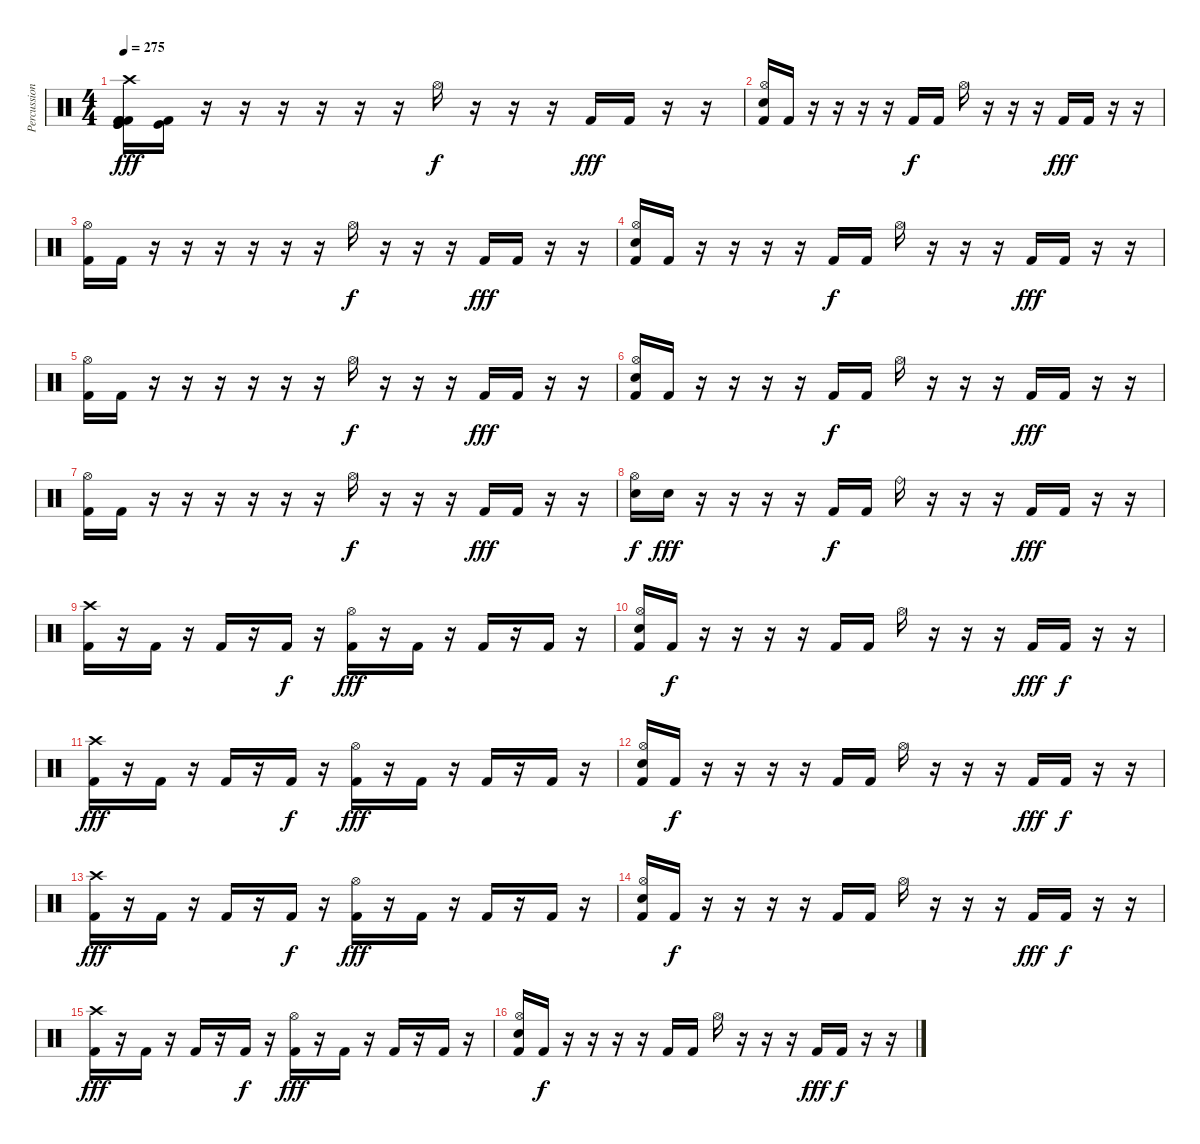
\track ("Percussion" "Percussion") {instrument percussion}
\staff {score}
\articulation defaults
\ts (4 4)
\tempo 275
\clef neutral
\ks c
("Crash high (hit)" "Kick (hit)" "Kick (hit)" "Kick (hit) 2" "Kick (hit) 2" "Kick (hit) 2").16{dy fff} ("Kick (hit)" "Kick (hit) 2").16 r.16 r.16 r.16 r.16 r.16 r.16 "Hi-Hat (open)".16{dy f} r.16 r.16 r.16 "Kick (hit) 2".16{dy fff} "Kick (hit) 2".16 r.16 r.16 |
("Hi-Hat (open)" "Electric Snare (hit)" "Kick (hit) 2").16 "Kick (hit) 2".16 r.16 r.16 r.16 r.16 "Kick (hit) 2".16{dy f} "Kick (hit) 2".16 "Hi-Hat (open)".16 r.16 r.16 r.16 "Kick (hit) 2".16{dy fff} "Kick (hit) 2".16 r.16 r.16 |
("Hi-Hat (open)" "Kick (hit) 2").16 "Kick (hit) 2".16 r.16 r.16 r.16 r.16 r.16 r.16 "Hi-Hat (open)".16{dy f} r.16 r.16 r.16 "Kick (hit) 2".16{dy fff} "Kick (hit) 2".16 r.16 r.16 |
("Hi-Hat (open)" "Electric Snare (hit)" "Kick (hit) 2").16 "Kick (hit) 2".16 r.16 r.16 r.16 r.16 "Kick (hit) 2".16{dy f} "Kick (hit) 2".16 "Hi-Hat (open)".16 r.16 r.16 r.16 "Kick (hit) 2".16{dy fff} "Kick (hit) 2".16 r.16 r.16 |
("Hi-Hat (open)" "Kick (hit) 2").16 "Kick (hit) 2".16 r.16 r.16 r.16 r.16 r.16 r.16 "Hi-Hat (open)".16{dy f} r.16 r.16 r.16 "Kick (hit) 2".16{dy fff} "Kick (hit) 2".16 r.16 r.16 |
("Hi-Hat (open)" "Electric Snare (hit)" "Kick (hit) 2").16 "Kick (hit) 2".16 r.16 r.16 r.16 r.16 "Kick (hit) 2".16{dy f} "Kick (hit) 2".16 "Hi-Hat (open)".16 r.16 r.16 r.16 "Kick (hit) 2".16{dy fff} "Kick (hit) 2".16 r.16 r.16 |
("Hi-Hat (open)" "Kick (hit) 2").16 "Kick (hit) 2".16 r.16 r.16 r.16 r.16 r.16 r.16 "Hi-Hat (open)".16{dy f} r.16 r.16 r.16 "Kick (hit) 2".16{dy fff} "Kick (hit) 2".16 r.16 r.16 |
("Hi-Hat (open)" "Electric Snare (hit)").16{dy f} "Electric Snare (hit)".16{dy fff} r.16 r.16 r.16 r.16 "Kick (hit) 2".16{dy f} "Kick (hit) 2".16 "Ride (bell)".16 r.16 r.16 r.16 "Kick (hit) 2".16{dy fff} "Kick (hit) 2".16 r.16 r.16 |
("Crash high (hit)" "Kick (hit) 2").16 r.16 "Kick (hit) 2".16 r.16 "Kick (hit) 2".16 r.16 "Kick (hit) 2".16{dy f} r.16 ("Hi-Hat (open)" "Kick (hit) 2").16{dy fff} r.16 "Kick (hit) 2".16 r.16 "Kick (hit) 2".16 r.16 "Kick (hit) 2".16 r.16 |
("Hi-Hat (open)" "Electric Snare (hit)" "Kick (hit) 2").16 "Kick (hit) 2".16{dy f} r.16 r.16 r.16 r.16 "Kick (hit) 2".16 "Kick (hit) 2".16 "Hi-Hat (open)".16 r.16 r.16 r.16 "Kick (hit) 2".16{dy fff} "Kick (hit) 2".16{dy f} r.16 r.16 |
("Crash high (hit)" "Kick (hit) 2").16{dy fff} r.16 "Kick (hit) 2".16 r.16 "Kick (hit) 2".16 r.16 "Kick (hit) 2".16{dy f} r.16 ("Hi-Hat (open)" "Kick (hit) 2").16{dy fff} r.16 "Kick (hit) 2".16 r.16 "Kick (hit) 2".16 r.16 "Kick (hit) 2".16 r.16 |
("Hi-Hat (open)" "Electric Snare (hit)" "Kick (hit) 2").16 "Kick (hit) 2".16{dy f} r.16 r.16 r.16 r.16 "Kick (hit) 2".16 "Kick (hit) 2".16 "Hi-Hat (open)".16 r.16 r.16 r.16 "Kick (hit) 2".16{dy fff} "Kick (hit) 2".16{dy f} r.16 r.16 |
("Crash high (hit)" "Kick (hit) 2").16{dy fff} r.16 "Kick (hit) 2".16 r.16 "Kick (hit) 2".16 r.16 "Kick (hit) 2".16{dy f} r.16 ("Hi-Hat (open)" "Kick (hit) 2").16{dy fff} r.16 "Kick (hit) 2".16 r.16 "Kick (hit) 2".16 r.16 "Kick (hit) 2".16 r.16 |
("Hi-Hat (open)" "Electric Snare (hit)" "Kick (hit) 2").16 "Kick (hit) 2".16{dy f} r.16 r.16 r.16 r.16 "Kick (hit) 2".16 "Kick (hit) 2".16 "Hi-Hat (open)".16 r.16 r.16 r.16 "Kick (hit) 2".16{dy fff} "Kick (hit) 2".16{dy f} r.16 r.16 |
("Crash high (hit)" "Kick (hit) 2").16{dy fff} r.16 "Kick (hit) 2".16 r.16 "Kick (hit) 2".16 r.16 "Kick (hit) 2".16{dy f} r.16 ("Hi-Hat (open)" "Kick (hit) 2").16{dy fff} r.16 "Kick (hit) 2".16 r.16 "Kick (hit) 2".16 r.16 "Kick (hit) 2".16 r.16 |
("Hi-Hat (open)" "Electric Snare (hit)" "Kick (hit) 2").16 "Kick (hit) 2".16{dy f} r.16 r.16 r.16 r.16 "Kick (hit) 2".16 "Kick (hit) 2".16 "Hi-Hat (open)".16 r.16 r.16 r.16 "Kick (hit) 2".16{dy fff} "Kick (hit) 2".16{dy f} r.16 r.16
